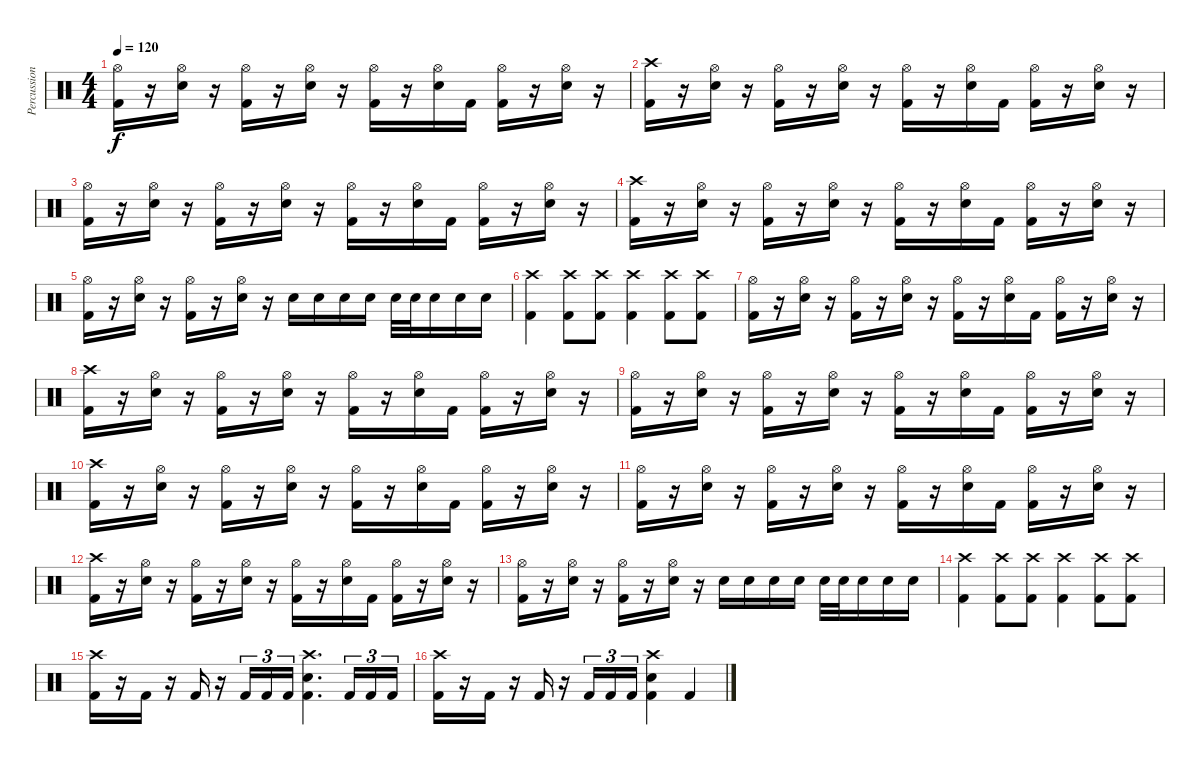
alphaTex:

\track ("Percussion" "Percussion") {instrument percussion}
\staff {score}
\articulation defaults
\ts (4 4)
\tempo 120
\clef neutral
\ks c
("Hi-Hat (open)" "Kick (hit) 2").16{dy f} r.16 ("Hi-Hat (open)" "Electric Snare (hit)").16 r.16 ("Hi-Hat (open)" "Kick (hit) 2").16 r.16 ("Hi-Hat (open)" "Electric Snare (hit)").16 r.16 ("Hi-Hat (open)" "Kick (hit) 2").16 r.16 ("Hi-Hat (open)" "Electric Snare (hit)").16 "Kick (hit) 2".16 ("Hi-Hat (open)" "Kick (hit) 2").16 r.16 ("Hi-Hat (open)" "Electric Snare (hit)").16 r.16 |
("Crash high (hit)" "Kick (hit) 2").16 r.16 ("Hi-Hat (open)" "Electric Snare (hit)").16 r.16 ("Hi-Hat (open)" "Kick (hit) 2").16 r.16 ("Hi-Hat (open)" "Electric Snare (hit)").16 r.16 ("Hi-Hat (open)" "Kick (hit) 2").16 r.16 ("Hi-Hat (open)" "Electric Snare (hit)").16 "Kick (hit) 2".16 ("Hi-Hat (open)" "Kick (hit) 2").16 r.16 ("Hi-Hat (open)" "Electric Snare (hit)").16 r.16 |
("Hi-Hat (open)" "Kick (hit) 2").16 r.16 ("Hi-Hat (open)" "Electric Snare (hit)").16 r.16 ("Hi-Hat (open)" "Kick (hit) 2").16 r.16 ("Hi-Hat (open)" "Electric Snare (hit)").16 r.16 ("Hi-Hat (open)" "Kick (hit) 2").16 r.16 ("Hi-Hat (open)" "Electric Snare (hit)").16 "Kick (hit) 2".16 ("Hi-Hat (open)" "Kick (hit) 2").16 r.16 ("Hi-Hat (open)" "Electric Snare (hit)").16 r.16 |
("Crash high (hit)" "Kick (hit) 2").16 r.16 ("Hi-Hat (open)" "Electric Snare (hit)").16 r.16 ("Hi-Hat (open)" "Kick (hit) 2").16 r.16 ("Hi-Hat (open)" "Electric Snare (hit)").16 r.16 ("Hi-Hat (open)" "Kick (hit) 2").16 r.16 ("Hi-Hat (open)" "Electric Snare (hit)").16 "Kick (hit) 2".16 ("Hi-Hat (open)" "Kick (hit) 2").16 r.16 ("Hi-Hat (open)" "Electric Snare (hit)").16 r.16 |
("Hi-Hat (open)" "Kick (hit) 2").16 r.16 ("Hi-Hat (open)" "Electric Snare (hit)").16 r.16 ("Hi-Hat (open)" "Kick (hit) 2").16 r.16 ("Hi-Hat (open)" "Electric Snare (hit)").16 r.16 "Electric Snare (hit)".16 "Electric Snare (hit)".16 "Electric Snare (hit)".16 "Electric Snare (hit)".16 "Electric Snare (hit)".32 "Electric Snare (hit)".32 "Electric Snare (hit)".16 "Electric Snare (hit)".16 "Electric Snare (hit)".16 |
("Crash high (hit)" "Kick (hit) 2").4 ("Crash high (hit)" "Kick (hit) 2").8 ("Crash high (hit)" "Kick (hit) 2").8 ("Crash high (hit)" "Kick (hit) 2").4 ("Crash high (hit)" "Kick (hit) 2").8 ("Crash high (hit)" "Kick (hit) 2").8 |
("Hi-Hat (open)" "Kick (hit) 2").16 r.16 ("Hi-Hat (open)" "Electric Snare (hit)").16 r.16 ("Hi-Hat (open)" "Kick (hit) 2").16 r.16 ("Hi-Hat (open)" "Electric Snare (hit)").16 r.16 ("Hi-Hat (open)" "Kick (hit) 2").16 r.16 ("Hi-Hat (open)" "Electric Snare (hit)").16 "Kick (hit) 2".16 ("Hi-Hat (open)" "Kick (hit) 2").16 r.16 ("Hi-Hat (open)" "Electric Snare (hit)").16 r.16 |
("Crash high (hit)" "Kick (hit) 2").16 r.16 ("Hi-Hat (open)" "Electric Snare (hit)").16 r.16 ("Hi-Hat (open)" "Kick (hit) 2").16 r.16 ("Hi-Hat (open)" "Electric Snare (hit)").16 r.16 ("Hi-Hat (open)" "Kick (hit) 2").16 r.16 ("Hi-Hat (open)" "Electric Snare (hit)").16 "Kick (hit) 2".16 ("Hi-Hat (open)" "Kick (hit) 2").16 r.16 ("Hi-Hat (open)" "Electric Snare (hit)").16 r.16 |
("Hi-Hat (open)" "Kick (hit) 2").16 r.16 ("Hi-Hat (open)" "Electric Snare (hit)").16 r.16 ("Hi-Hat (open)" "Kick (hit) 2").16 r.16 ("Hi-Hat (open)" "Electric Snare (hit)").16 r.16 ("Hi-Hat (open)" "Kick (hit) 2").16 r.16 ("Hi-Hat (open)" "Electric Snare (hit)").16 "Kick (hit) 2".16 ("Hi-Hat (open)" "Kick (hit) 2").16 r.16 ("Hi-Hat (open)" "Electric Snare (hit)").16 r.16 |
("Crash high (hit)" "Kick (hit) 2").16 r.16 ("Hi-Hat (open)" "Electric Snare (hit)").16 r.16 ("Hi-Hat (open)" "Kick (hit) 2").16 r.16 ("Hi-Hat (open)" "Electric Snare (hit)").16 r.16 ("Hi-Hat (open)" "Kick (hit) 2").16 r.16 ("Hi-Hat (open)" "Electric Snare (hit)").16 "Kick (hit) 2".16 ("Hi-Hat (open)" "Kick (hit) 2").16 r.16 ("Hi-Hat (open)" "Electric Snare (hit)").16 r.16 |
("Hi-Hat (open)" "Kick (hit) 2").16 r.16 ("Hi-Hat (open)" "Electric Snare (hit)").16 r.16 ("Hi-Hat (open)" "Kick (hit) 2").16 r.16 ("Hi-Hat (open)" "Electric Snare (hit)").16 r.16 ("Hi-Hat (open)" "Kick (hit) 2").16 r.16 ("Hi-Hat (open)" "Electric Snare (hit)").16 "Kick (hit) 2".16 ("Hi-Hat (open)" "Kick (hit) 2").16 r.16 ("Hi-Hat (open)" "Electric Snare (hit)").16 r.16 |
("Crash high (hit)" "Kick (hit) 2").16 r.16 ("Hi-Hat (open)" "Electric Snare (hit)").16 r.16 ("Hi-Hat (open)" "Kick (hit) 2").16 r.16 ("Hi-Hat (open)" "Electric Snare (hit)").16 r.16 ("Hi-Hat (open)" "Kick (hit) 2").16 r.16 ("Hi-Hat (open)" "Electric Snare (hit)").16 "Kick (hit) 2".16 ("Hi-Hat (open)" "Kick (hit) 2").16 r.16 ("Hi-Hat (open)" "Electric Snare (hit)").16 r.16 |
("Hi-Hat (open)" "Kick (hit) 2").16 r.16 ("Hi-Hat (open)" "Electric Snare (hit)").16 r.16 ("Hi-Hat (open)" "Kick (hit) 2").16 r.16 ("Hi-Hat (open)" "Electric Snare (hit)").16 r.16 "Electric Snare (hit)".16 "Electric Snare (hit)".16 "Electric Snare (hit)".16 "Electric Snare (hit)".16 "Electric Snare (hit)".32 "Electric Snare (hit)".32 "Electric Snare (hit)".16 "Electric Snare (hit)".16 "Electric Snare (hit)".16 |
("Crash high (hit)" "Kick (hit) 2").4 ("Crash high (hit)" "Kick (hit) 2").8 ("Crash high (hit)" "Kick (hit) 2").8 ("Crash high (hit)" "Kick (hit) 2").4 ("Crash high (hit)" "Kick (hit) 2").8 ("Crash high (hit)" "Kick (hit) 2").8 |
("Crash high (hit)" "Kick (hit) 2").16 r.16 "Kick (hit) 2".16 r.16 "Kick (hit) 2".16 r.16 "Kick (hit) 2".16{tu (3 2)} "Kick (hit) 2".16{tu (3 2)} "Kick (hit) 2".16{tu (3 2)} ("Crash high (hit)" "Electric Snare (hit)" "Kick (hit) 2").4{d} "Kick (hit) 2".16{tu (3 2)} "Kick (hit) 2".16{tu (3 2)} "Kick (hit) 2".16{tu (3 2)} |
("Crash high (hit)" "Kick (hit) 2").16 r.16 "Kick (hit) 2".16 r.16 "Kick (hit) 2".16 r.16 "Kick (hit) 2".16{tu (3 2)} "Kick (hit) 2".16{tu (3 2)} "Kick (hit) 2".16{tu (3 2)} ("Crash high (hit)" "Electric Snare (hit)" "Kick (hit) 2").4 "Kick (hit) 2".4
